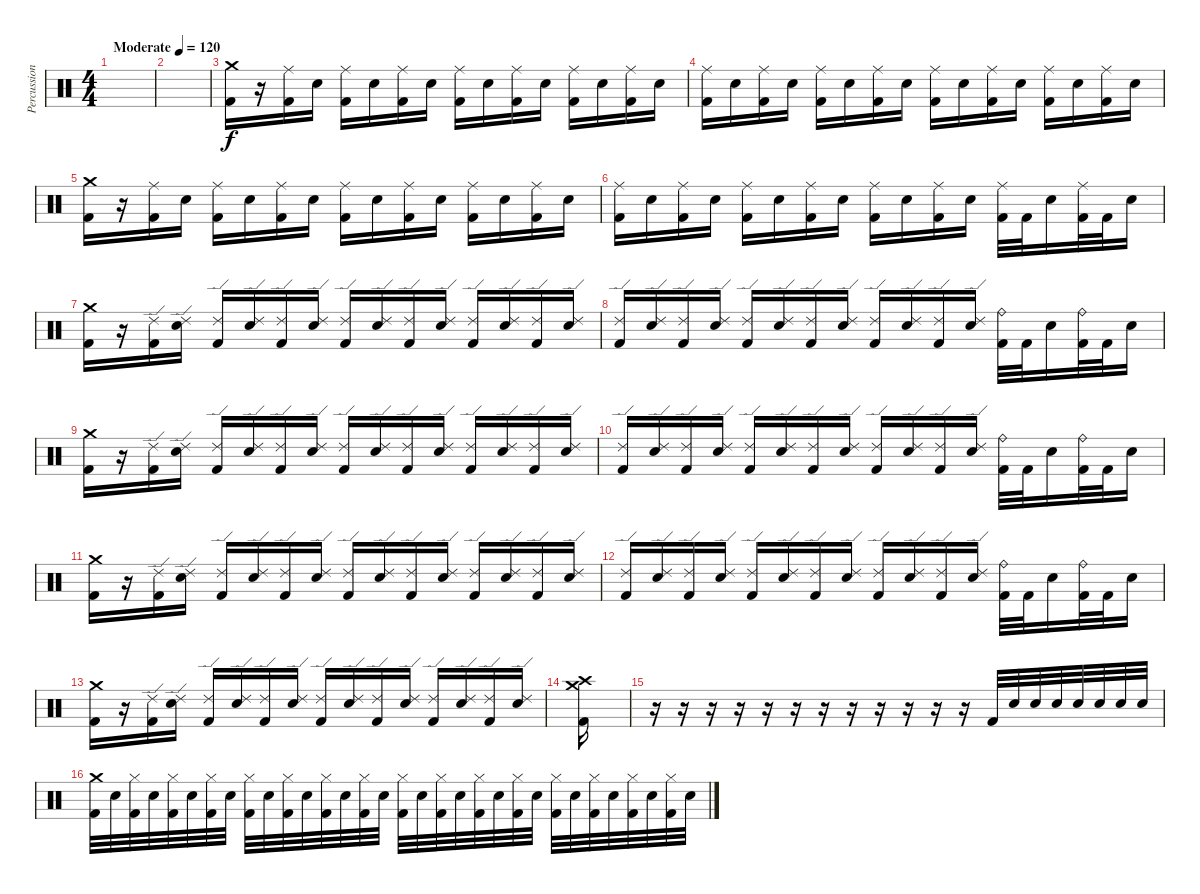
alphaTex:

\track ("Percussion" "Percussion") {instrument percussion}
\staff {score}
\articulation defaults
\ts (4 4)
\tempo (120 "Moderate")
\clef neutral
\ks c
|
|
("Kick (hit) 2" "Crash medium (hit)").16 r.16 ("Kick (hit) 2" "Ride (middle)").16 "Snare (hit) 2".16 ("Kick (hit) 2" "Ride (middle)").16 "Snare (hit) 2".16 ("Kick (hit) 2" "Ride (middle)").16 "Snare (hit) 2".16 ("Kick (hit) 2" "Ride (middle)").16 "Snare (hit) 2".16 ("Kick (hit) 2" "Ride (middle)").16 "Snare (hit) 2".16 ("Kick (hit) 2" "Ride (middle)").16 "Snare (hit) 2".16 ("Kick (hit) 2" "Ride (middle)").16 "Snare (hit) 2".16 |
("Kick (hit) 2" "Ride (middle)").16 "Snare (hit) 2".16 ("Kick (hit) 2" "Ride (middle)").16 "Snare (hit) 2".16 ("Kick (hit) 2" "Ride (middle)").16 "Snare (hit) 2".16 ("Kick (hit) 2" "Ride (middle)").16 "Snare (hit) 2".16 ("Kick (hit) 2" "Ride (middle)").16 "Snare (hit) 2".16 ("Kick (hit) 2" "Ride (middle)").16 "Snare (hit) 2".16 ("Kick (hit) 2" "Ride (middle)").16 "Snare (hit) 2".16 ("Kick (hit) 2" "Ride (middle)").16 "Snare (hit) 2".16 |
("Kick (hit) 2" "Crash medium (hit)").16 r.16 ("Kick (hit) 2" "Ride (middle)").16 "Snare (hit) 2".16 ("Kick (hit) 2" "Ride (middle)").16 "Snare (hit) 2".16 ("Kick (hit) 2" "Ride (middle)").16 "Snare (hit) 2".16 ("Kick (hit) 2" "Ride (middle)").16 "Snare (hit) 2".16 ("Kick (hit) 2" "Ride (middle)").16 "Snare (hit) 2".16 ("Kick (hit) 2" "Ride (middle)").16 "Snare (hit) 2".16 ("Kick (hit) 2" "Ride (middle)").16 "Snare (hit) 2".16 |
("Kick (hit) 2" "Ride (middle)").16 "Snare (hit) 2".16 ("Kick (hit) 2" "Ride (middle)").16 "Snare (hit) 2".16 ("Kick (hit) 2" "Ride (middle)").16 "Snare (hit) 2".16 ("Kick (hit) 2" "Ride (middle)").16 "Snare (hit) 2".16 ("Kick (hit) 2" "Ride (middle)").16 "Snare (hit) 2".16 ("Kick (hit) 2" "Ride (middle)").16 "Snare (hit) 2".16 ("Kick (hit) 2" "Ride (middle)").32 "Kick (hit) 2".32 "Snare (hit) 2".16 ("Kick (hit) 2" "Ride (middle)").32 "Kick (hit) 2".32 "Snare (hit) 2".16 |
("Kick (hit) 2" "Crash medium (hit)").16 r.16 ("Kick (hit) 2" "Ride (edge) 2").16 ("Snare (hit) 2" "Ride (edge) 2").16 ("Kick (hit) 2" "Ride (edge) 2").16 ("Snare (hit) 2" "Ride (edge) 2").16 ("Kick (hit) 2" "Ride (edge) 2").16 ("Snare (hit) 2" "Ride (edge) 2").16 ("Kick (hit) 2" "Ride (edge) 2").16 ("Snare (hit) 2" "Ride (edge) 2").16 ("Kick (hit) 2" "Ride (edge) 2").16 ("Snare (hit) 2" "Ride (edge) 2").16 ("Kick (hit) 2" "Ride (edge) 2").16 ("Snare (hit) 2" "Ride (edge) 2").16 ("Kick (hit) 2" "Ride (edge) 2").16 ("Snare (hit) 2" "Ride (edge) 2").16 |
("Kick (hit) 2" "Ride (edge) 2").16 ("Snare (hit) 2" "Ride (edge) 2").16 ("Kick (hit) 2" "Ride (edge) 2").16 ("Snare (hit) 2" "Ride (edge) 2").16 ("Kick (hit) 2" "Ride (edge) 2").16 ("Snare (hit) 2" "Ride (edge) 2").16 ("Kick (hit) 2" "Ride (edge) 2").16 ("Snare (hit) 2" "Ride (edge) 2").16 ("Kick (hit) 2" "Ride (edge) 2").16 ("Snare (hit) 2" "Ride (edge) 2").16 ("Kick (hit) 2" "Ride (edge) 2").16 ("Snare (hit) 2" "Ride (edge) 2").16 ("Kick (hit) 2" "Ride (bell)").32 "Kick (hit) 2".32 "Snare (hit) 2".16 ("Kick (hit) 2" "Ride (bell)").32 "Kick (hit) 2".32 "Snare (hit) 2".16 |
("Kick (hit) 2" "Crash medium (hit)").16 r.16 ("Kick (hit) 2" "Ride (edge) 2").16 ("Snare (hit) 2" "Ride (edge) 2").16 ("Kick (hit) 2" "Ride (edge) 2").16 ("Snare (hit) 2" "Ride (edge) 2").16 ("Kick (hit) 2" "Ride (edge) 2").16 ("Snare (hit) 2" "Ride (edge) 2").16 ("Kick (hit) 2" "Ride (edge) 2").16 ("Snare (hit) 2" "Ride (edge) 2").16 ("Kick (hit) 2" "Ride (edge) 2").16 ("Snare (hit) 2" "Ride (edge) 2").16 ("Kick (hit) 2" "Ride (edge) 2").16 ("Snare (hit) 2" "Ride (edge) 2").16 ("Kick (hit) 2" "Ride (edge) 2").16 ("Snare (hit) 2" "Ride (edge) 2").16 |
("Kick (hit) 2" "Ride (edge) 2").16 ("Snare (hit) 2" "Ride (edge) 2").16 ("Kick (hit) 2" "Ride (edge) 2").16 ("Snare (hit) 2" "Ride (edge) 2").16 ("Kick (hit) 2" "Ride (edge) 2").16 ("Snare (hit) 2" "Ride (edge) 2").16 ("Kick (hit) 2" "Ride (edge) 2").16 ("Snare (hit) 2" "Ride (edge) 2").16 ("Kick (hit) 2" "Ride (edge) 2").16 ("Snare (hit) 2" "Ride (edge) 2").16 ("Kick (hit) 2" "Ride (edge) 2").16 ("Snare (hit) 2" "Ride (edge) 2").16 ("Kick (hit) 2" "Ride (bell)").32 "Kick (hit) 2".32 "Snare (hit) 2".16 ("Kick (hit) 2" "Ride (bell)").32 "Kick (hit) 2".32 "Snare (hit) 2".16 |
("Kick (hit) 2" "Crash medium (hit)").16 r.16 ("Kick (hit) 2" "Ride (edge) 2").16 ("Snare (hit) 2" "Ride (edge) 2").16 ("Kick (hit) 2" "Ride (edge) 2").16 ("Snare (hit) 2" "Ride (edge) 2").16 ("Kick (hit) 2" "Ride (edge) 2").16 ("Snare (hit) 2" "Ride (edge) 2").16 ("Kick (hit) 2" "Ride (edge) 2").16 ("Snare (hit) 2" "Ride (edge) 2").16 ("Kick (hit) 2" "Ride (edge) 2").16 ("Snare (hit) 2" "Ride (edge) 2").16 ("Kick (hit) 2" "Ride (edge) 2").16 ("Snare (hit) 2" "Ride (edge) 2").16 ("Kick (hit) 2" "Ride (edge) 2").16 ("Snare (hit) 2" "Ride (edge) 2").16 |
("Kick (hit) 2" "Ride (edge) 2").16 ("Snare (hit) 2" "Ride (edge) 2").16 ("Kick (hit) 2" "Ride (edge) 2").16 ("Snare (hit) 2" "Ride (edge) 2").16 ("Kick (hit) 2" "Ride (edge) 2").16 ("Snare (hit) 2" "Ride (edge) 2").16 ("Kick (hit) 2" "Ride (edge) 2").16 ("Snare (hit) 2" "Ride (edge) 2").16 ("Kick (hit) 2" "Ride (edge) 2").16 ("Snare (hit) 2" "Ride (edge) 2").16 ("Kick (hit) 2" "Ride (edge) 2").16 ("Snare (hit) 2" "Ride (edge) 2").16 ("Kick (hit) 2" "Ride (bell)").32 "Kick (hit) 2".32 "Snare (hit) 2".16 ("Kick (hit) 2" "Ride (bell)").32 "Kick (hit) 2".32 "Snare (hit) 2".16 |
("Kick (hit) 2" "Crash medium (hit)").16 r.16 ("Kick (hit) 2" "Ride (edge) 2").16 ("Snare (hit) 2" "Ride (edge) 2").16 ("Kick (hit) 2" "Ride (edge) 2").16 ("Snare (hit) 2" "Ride (edge) 2").16 ("Kick (hit) 2" "Ride (edge) 2").16 ("Snare (hit) 2" "Ride (edge) 2").16 ("Kick (hit) 2" "Ride (edge) 2").16 ("Snare (hit) 2" "Ride (edge) 2").16 ("Kick (hit) 2" "Ride (edge) 2").16 ("Snare (hit) 2" "Ride (edge) 2").16 ("Kick (hit) 2" "Ride (edge) 2").16 ("Snare (hit) 2" "Ride (edge) 2").16 ("Kick (hit) 2" "Ride (edge) 2").16 ("Snare (hit) 2" "Ride (edge) 2").16 |
("Kick (hit) 2" "Crash medium (hit)" "Crash high (hit)").16 |
r.16 r.16 r.16 r.16 r.16 r.16 r.16 r.16 r.16 r.16 r.16 r.16 "Kick (hit) 2".32 "Snare (hit) 2".32 "Snare (hit) 2".32 "Snare (hit) 2".32 "Snare (hit) 2".32 "Snare (hit) 2".32 "Snare (hit) 2".32 "Snare (hit) 2".32 |
("Kick (hit) 2" "Crash medium (hit)").32 "Snare (hit) 2".32 ("Kick (hit) 2" "Hi-Hat (closed)").32 "Snare (hit) 2".32 ("Kick (hit) 2" "Hi-Hat (closed)").32 "Snare (hit) 2".32 ("Kick (hit) 2" "Hi-Hat (closed)").32 "Snare (hit) 2".32 ("Kick (hit) 2" "Hi-Hat (closed)").32 "Snare (hit) 2".32 ("Kick (hit) 2" "Hi-Hat (closed)").32 "Snare (hit) 2".32 ("Kick (hit) 2" "Hi-Hat (closed)").32 "Snare (hit) 2".32 ("Kick (hit) 2" "Hi-Hat (closed)").32 "Snare (hit) 2".32 ("Kick (hit) 2" "Hi-Hat (closed)").32 "Snare (hit) 2".32 ("Kick (hit) 2" "Hi-Hat (closed)").32 "Snare (hit) 2".32 ("Kick (hit) 2" "Hi-Hat (closed)").32 "Snare (hit) 2".32 ("Kick (hit) 2" "Hi-Hat (closed)").32 "Snare (hit) 2".32 ("Kick (hit) 2" "Hi-Hat (closed)").32 "Snare (hit) 2".32 ("Kick (hit) 2" "Hi-Hat (closed)").32 "Snare (hit) 2".32 ("Kick (hit) 2" "Hi-Hat (closed)").32 "Snare (hit) 2".32 ("Kick (hit) 2" "Hi-Hat (closed)").32 "Snare (hit) 2".32
